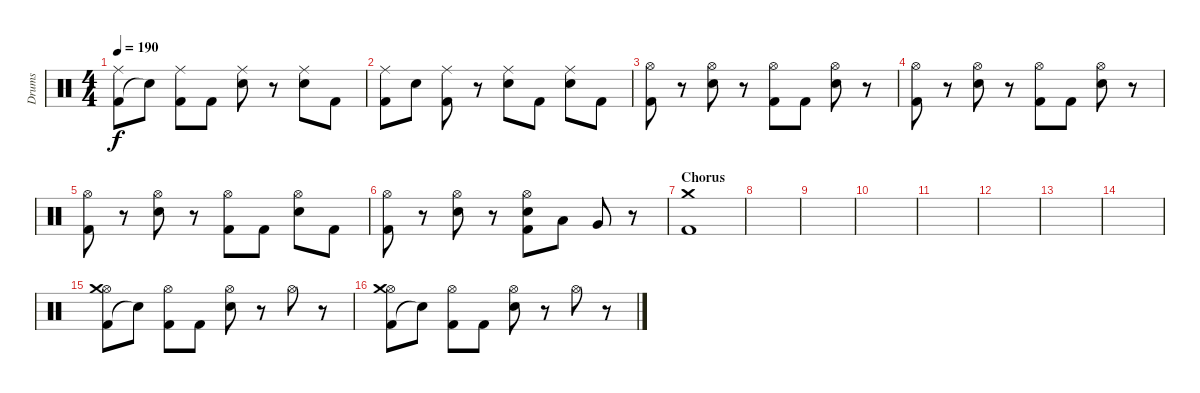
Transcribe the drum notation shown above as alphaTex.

\track ("Drums" "Drums") {instrument percussion}
\staff {score}
\articulation defaults
\ts (4 4)
\tempo 190
\clef neutral
\ks c
("Kick (hit) 2" "Ride (middle)").8{dy f} "Snare (hit)"{t}.8 ("Kick (hit) 2" "Ride (middle)").8 "Kick (hit) 2".8 ("Electric Snare (hit)" "Ride (middle)").8 r.8 ("Electric Snare (hit)" "Ride (middle)").8 "Kick (hit) 2".8 |
("Kick (hit) 2" "Ride (middle)").8 "Electric Snare (hit)".8 ("Kick (hit) 2" "Ride (middle)").8 r.8 ("Electric Snare (hit)" "Ride (middle)").8 "Kick (hit) 2".8 ("Electric Snare (hit)" "Ride (middle)").8 "Kick (hit) 2".8 |
("Kick (hit) 2" "Hi-Hat (open)").8 r.8 ("Electric Snare (hit)" "Hi-Hat (open)").8 r.8 ("Kick (hit) 2" "Hi-Hat (open)").8 "Kick (hit) 2".8 ("Electric Snare (hit)" "Hi-Hat (open)").8 r.8 |
("Kick (hit) 2" "Hi-Hat (open)").8 r.8 ("Electric Snare (hit)" "Hi-Hat (open)").8 r.8 ("Kick (hit) 2" "Hi-Hat (open)").8 "Kick (hit) 2".8 ("Electric Snare (hit)" "Hi-Hat (open)").8 r.8 |
("Kick (hit) 2" "Hi-Hat (open)").8 r.8 ("Electric Snare (hit)" "Hi-Hat (open)").8 r.8 ("Kick (hit) 2" "Hi-Hat (open)").8 "Kick (hit) 2".8 ("Electric Snare (hit)" "Hi-Hat (open)").8 "Kick (hit) 2".8 |
("Kick (hit) 2" "Hi-Hat (open)").8 r.8 ("Electric Snare (hit)" "Hi-Hat (open)").8 r.8 ("Kick (hit) 2" "Electric Snare (hit)" "Hi-Hat (open)").8 "Low Tom (hit)".8 "Very Low Tom (hit)".8 r.8 |
\section ("" "Chorus")
("Kick (hit) 2" "Crash medium (hit)").1 |
|
|
|
|
|
|
|
("Kick (hit) 2" "Hi-Hat (open)" "Crash medium (hit)").8 "Snare (hit)"{t}.8 ("Kick (hit) 2" "Hi-Hat (open)").8 "Kick (hit) 2".8 ("Electric Snare (hit)" "Hi-Hat (open)").8 r.8 "Hi-Hat (open)".8 r.8 |
("Kick (hit) 2" "Hi-Hat (open)" "Crash medium (hit)").8 "Snare (hit)"{t}.8 ("Kick (hit) 2" "Hi-Hat (open)").8 "Kick (hit) 2".8 ("Electric Snare (hit)" "Hi-Hat (open)").8 r.8 "Hi-Hat (open)".8 r.8
